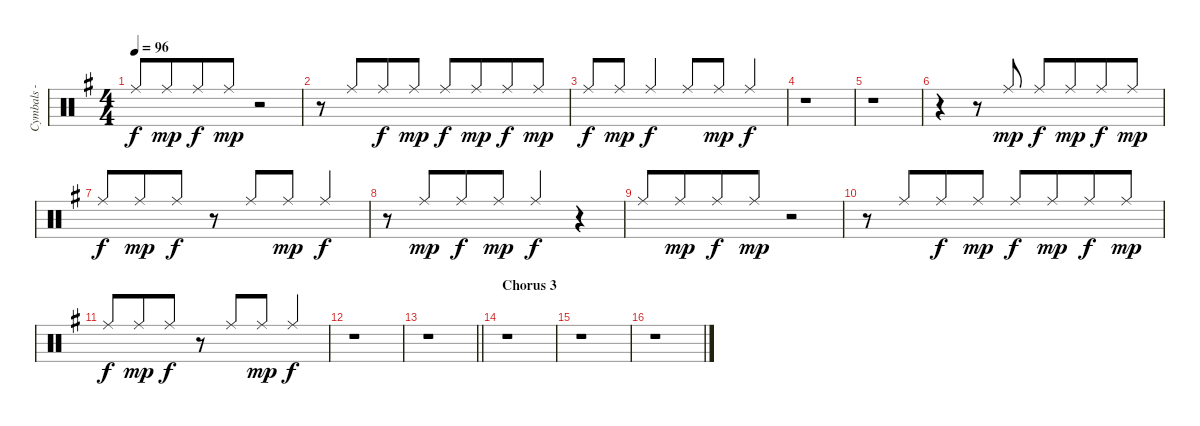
\track ("Cymbals - ride" "Cymbals - ") {instrument percussion}
\staff {score}
\articulation defaults
\ts (4 4)
\tempo 96
\clef neutral
\ks g "Ride (middle)".8{dy f beam Up} "Ride (middle)".8{dy mp beam Up beam merge} "Ride (middle)".8{dy f beam Up} "Ride (middle)".8{dy mp beam Up}
r.2 |
r.8 "Ride (middle)".8{beam Up beam merge} "Ride (middle)".8{dy f beam Up} "Ride (middle)".8{dy mp beam Up} "Ride (middle)".8{dy f beam Up} "Ride (middle)".8{dy mp beam Up beam merge} "Ride (middle)".8{dy f beam Up} "Ride (middle)".8{dy mp beam Up} |
"Ride (middle)".8{dy f beam Up} "Ride (middle)".8{dy mp beam Up beam merge} "Ride (middle)".4{dy f beam Up} "Ride (middle)".8{beam Up} "Ride (middle)".8{dy mp beam Up} "Ride (middle)".4{dy f beam Up} |
r.1 |
r.1 |
r.4{beam merge} r.8 "Ride (middle)".8{dy mp beam Up} "Ride (middle)".8{dy f beam Up} "Ride (middle)".8{dy mp beam Up beam merge} "Ride (middle)".8{dy f beam Up} "Ride (middle)".8{dy mp beam Up} |
"Ride (middle)".8{dy f beam Up} "Ride (middle)".8{dy mp beam Up beam merge} "Ride (middle)".8{dy f beam Up} r.8 "Ride (middle)".8{beam Up} "Ride (middle)".8{dy mp beam Up} "Ride (middle)".4{dy f beam Up} |
r.8 "Ride (middle)".8{dy mp beam Up beam merge} "Ride (middle)".8{dy f beam Up} "Ride (middle)".8{dy mp beam Up} "Ride (middle)".4{dy f beam Up} r.4 |
"Ride (middle)".8{beam Up} "Ride (middle)".8{dy mp beam Up beam merge} "Ride (middle)".8{dy f beam Up} "Ride (middle)".8{dy mp beam Up} r.2 |
r.8 "Ride (middle)".8{beam Up beam merge} "Ride (middle)".8{dy f beam Up} "Ride (middle)".8{dy mp beam Up} "Ride (middle)".8{dy f beam Up} "Ride (middle)".8{dy mp beam Up beam merge} "Ride (middle)".8{dy f beam Up} "Ride (middle)".8{dy mp beam Up} |
"Ride (middle)".8{dy f beam Up} "Ride (middle)".8{dy mp beam Up beam merge} "Ride (middle)".8{dy f beam Up} r.8 "Ride (middle)".8{beam Up} "Ride (middle)".8{dy mp beam Up} "Ride (middle)".4{dy f beam Up} |
r.1 |
\barLineRight lightlight
r.1 |
\section ("" "Chorus 3")
r.1 |
r.1 |
r.1
